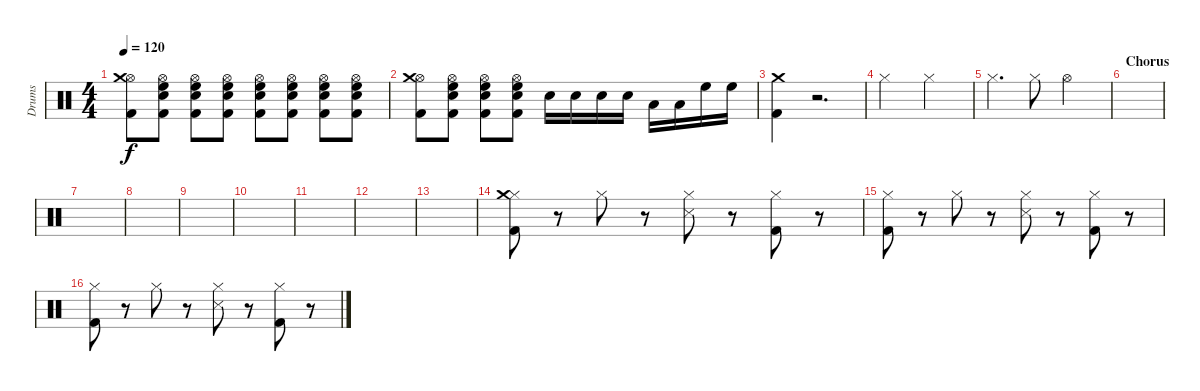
\track ("Drums" "Drums") {instrument percussion}
\staff {score}
\articulation defaults
\ts (4 4)
\tempo 120
\clef neutral
\ks c
("Hi-Hat (open)" "Kick (hit) 2" "Crash medium (hit)").8{dy f} ("Hi-Hat (open)" "Kick (hit) 2" "Snare (hit) 2" "High Floor Tom (hit)").8 ("Hi-Hat (open)" "Kick (hit) 2" "Snare (hit) 2" "High Floor Tom (hit)").8 ("Hi-Hat (open)" "Kick (hit) 2" "Snare (hit) 2" "High Floor Tom (hit)").8 ("Hi-Hat (open)" "Kick (hit) 2" "Snare (hit) 2" "High Floor Tom (hit)").8 ("Hi-Hat (open)" "Kick (hit) 2" "Snare (hit) 2" "High Floor Tom (hit)").8 ("Hi-Hat (open)" "Kick (hit) 2" "Snare (hit) 2" "High Floor Tom (hit)").8 ("Hi-Hat (open)" "Kick (hit) 2" "Snare (hit) 2" "High Floor Tom (hit)").8 |
("Hi-Hat (open)" "Kick (hit) 2" "Crash medium (hit)").8 ("Hi-Hat (open)" "Kick (hit) 2" "Snare (hit) 2" "High Floor Tom (hit)").8 ("Hi-Hat (open)" "Kick (hit) 2" "Snare (hit) 2" "High Floor Tom (hit)").8 ("Hi-Hat (open)" "Kick (hit) 2" "Snare (hit) 2" "High Floor Tom (hit)").8 "Snare (hit) 2".16 "Snare (hit) 2".16 "Snare (hit) 2".16 "Snare (hit) 2".16 "Low Tom (hit)".16 "Low Tom (hit)".16 "High Floor Tom (hit)".16 "High Floor Tom (hit)".16 |
("Kick (hit) 2" "Crash medium (hit)").4 r.2{d} |
"Hi-Hat (closed)".2 "Hi-Hat (closed)".2 |
"Hi-Hat (closed)".4{d} "Hi-Hat (closed)".8 "Hi-Hat (open)".2 |
\section ("" "Chorus")
|
|
|
|
|
|
|
|
("Hi-Hat (closed)" "Kick (hit) 2" "Crash medium (hit)").8 r.8 "Hi-Hat (closed)".8 r.8 ("Hi-Hat (closed)" "Snare (side stick) 3").8 r.8 ("Hi-Hat (closed)" "Kick (hit) 2").8 r.8 |
("Hi-Hat (closed)" "Kick (hit) 2").8 r.8 "Hi-Hat (closed)".8 r.8 ("Hi-Hat (closed)" "Snare (side stick) 3").8 r.8 ("Hi-Hat (closed)" "Kick (hit) 2").8 r.8 |
("Hi-Hat (closed)" "Kick (hit) 2").8 r.8 "Hi-Hat (closed)".8 r.8 ("Hi-Hat (closed)" "Snare (side stick) 3").8 r.8 ("Hi-Hat (closed)" "Kick (hit) 2").8 r.8
